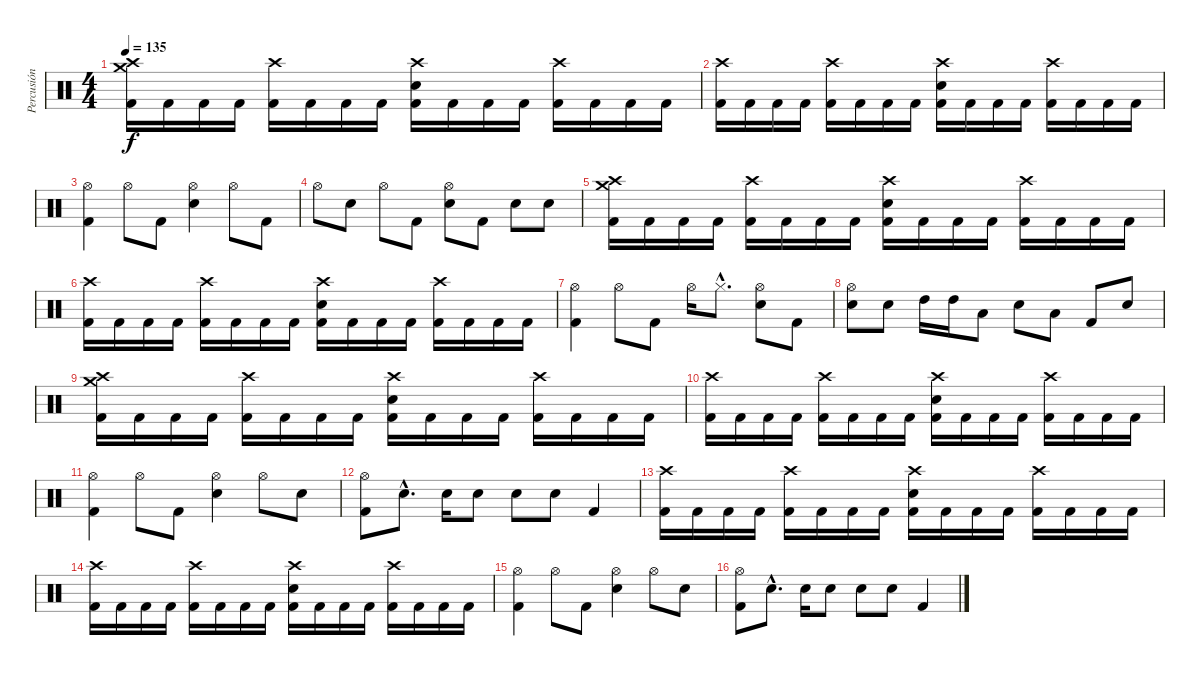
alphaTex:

\track ("Percusión" "Percusión") {instrument percussion}
\staff {score}
\articulation defaults
\ts (4 4)
\tempo 135
\clef neutral
\ks c
("Crash medium (hit)" "Crash high (hit)" "Kick (hit) 2").16{dy f} "Kick (hit) 2".16 "Kick (hit) 2".16 "Kick (hit) 2".16 ("Crash high (hit)" "Kick (hit) 2").16 "Kick (hit) 2".16 "Kick (hit) 2".16 "Kick (hit) 2".16 ("Crash high (hit)" "Electric Snare (hit)" "Kick (hit) 2").16 "Kick (hit) 2".16 "Kick (hit) 2".16 "Kick (hit) 2".16 ("Crash high (hit)" "Kick (hit) 2").16 "Kick (hit) 2".16 "Kick (hit) 2".16 "Kick (hit) 2".16 |
("Crash high (hit)" "Kick (hit) 2").16 "Kick (hit) 2".16 "Kick (hit) 2".16 "Kick (hit) 2".16 ("Crash high (hit)" "Kick (hit) 2").16 "Kick (hit) 2".16 "Kick (hit) 2".16 "Kick (hit) 2".16 ("Crash high (hit)" "Electric Snare (hit)" "Kick (hit) 2").16 "Kick (hit) 2".16 "Kick (hit) 2".16 "Kick (hit) 2".16 ("Crash high (hit)" "Kick (hit) 2").16 "Kick (hit) 2".16 "Kick (hit) 2".16 "Kick (hit) 2".16 |
("Hi-Hat (open)" "Kick (hit) 2").4 "Hi-Hat (open)".8 "Kick (hit) 2".8 ("Hi-Hat (open)" "Electric Snare (hit)").4 "Hi-Hat (open)".8 "Kick (hit) 2".8 |
"Hi-Hat (open)".8 "Electric Snare (hit)".8 "Hi-Hat (open)".8 "Kick (hit) 2".8 ("Hi-Hat (open)" "Electric Snare (hit)").8 "Kick (hit) 2".8 "Electric Snare (hit)".8 "Electric Snare (hit)".8 |
("Crash medium (hit)" "Crash high (hit)" "Kick (hit) 2").16 "Kick (hit) 2".16 "Kick (hit) 2".16 "Kick (hit) 2".16 ("Crash high (hit)" "Kick (hit) 2").16 "Kick (hit) 2".16 "Kick (hit) 2".16 "Kick (hit) 2".16 ("Crash high (hit)" "Electric Snare (hit)" "Kick (hit) 2").16 "Kick (hit) 2".16 "Kick (hit) 2".16 "Kick (hit) 2".16 ("Crash high (hit)" "Kick (hit) 2").16 "Kick (hit) 2".16 "Kick (hit) 2".16 "Kick (hit) 2".16 |
("Crash high (hit)" "Kick (hit) 2").16 "Kick (hit) 2".16 "Kick (hit) 2".16 "Kick (hit) 2".16 ("Crash high (hit)" "Kick (hit) 2").16 "Kick (hit) 2".16 "Kick (hit) 2".16 "Kick (hit) 2".16 ("Crash high (hit)" "Electric Snare (hit)" "Kick (hit) 2").16 "Kick (hit) 2".16 "Kick (hit) 2".16 "Kick (hit) 2".16 ("Crash high (hit)" "Kick (hit) 2").16 "Kick (hit) 2".16 "Kick (hit) 2".16 "Kick (hit) 2".16 |
("Hi-Hat (open)" "Kick (hit) 2").4 "Hi-Hat (open)".8 "Kick (hit) 2".8 "Hi-Hat (open)".16 "Hi-Hat (closed)"{hac}.8{d} ("Hi-Hat (open)" "Electric Snare (hit)").8 "Kick (hit) 2".8 |
("Hi-Hat (open)" "Electric Snare (hit)").8 "Electric Snare (hit)".8 "High Tom (hit)".16 "High Tom (hit)".16 "Low Tom (hit)".8 "Electric Snare (hit)".8 "Low Tom (hit)".8 "Kick (hit) 2".8 "Electric Snare (hit)".8 |
("Crash medium (hit)" "Crash high (hit)" "Kick (hit) 2").16 "Kick (hit) 2".16 "Kick (hit) 2".16 "Kick (hit) 2".16 ("Crash high (hit)" "Kick (hit) 2").16 "Kick (hit) 2".16 "Kick (hit) 2".16 "Kick (hit) 2".16 ("Crash high (hit)" "Electric Snare (hit)" "Kick (hit) 2").16 "Kick (hit) 2".16 "Kick (hit) 2".16 "Kick (hit) 2".16 ("Crash high (hit)" "Kick (hit) 2").16 "Kick (hit) 2".16 "Kick (hit) 2".16 "Kick (hit) 2".16 |
("Crash high (hit)" "Kick (hit) 2").16 "Kick (hit) 2".16 "Kick (hit) 2".16 "Kick (hit) 2".16 ("Crash high (hit)" "Kick (hit) 2").16 "Kick (hit) 2".16 "Kick (hit) 2".16 "Kick (hit) 2".16 ("Crash high (hit)" "Electric Snare (hit)" "Kick (hit) 2").16 "Kick (hit) 2".16 "Kick (hit) 2".16 "Kick (hit) 2".16 ("Crash high (hit)" "Kick (hit) 2").16 "Kick (hit) 2".16 "Kick (hit) 2".16 "Kick (hit) 2".16 |
("Hi-Hat (open)" "Kick (hit) 2").4 "Hi-Hat (open)".8 "Kick (hit) 2".8 ("Hi-Hat (open)" "Electric Snare (hit)").4 "Hi-Hat (open)".8 "Electric Snare (hit)".8 |
("Hi-Hat (open)" "Kick (hit) 2").8 "Electric Snare (hit)"{hac}.8{d} "Electric Snare (hit)".16 "Electric Snare (hit)".8 "Electric Snare (hit)".8 "Electric Snare (hit)".8 "Kick (hit) 2".4 |
("Crash high (hit)" "Kick (hit) 2").16 "Kick (hit) 2".16 "Kick (hit) 2".16 "Kick (hit) 2".16 ("Crash high (hit)" "Kick (hit) 2").16 "Kick (hit) 2".16 "Kick (hit) 2".16 "Kick (hit) 2".16 ("Crash high (hit)" "Electric Snare (hit)" "Kick (hit) 2").16 "Kick (hit) 2".16 "Kick (hit) 2".16 "Kick (hit) 2".16 ("Crash high (hit)" "Kick (hit) 2").16 "Kick (hit) 2".16 "Kick (hit) 2".16 "Kick (hit) 2".16 |
("Crash high (hit)" "Kick (hit) 2").16 "Kick (hit) 2".16 "Kick (hit) 2".16 "Kick (hit) 2".16 ("Crash high (hit)" "Kick (hit) 2").16 "Kick (hit) 2".16 "Kick (hit) 2".16 "Kick (hit) 2".16 ("Crash high (hit)" "Electric Snare (hit)" "Kick (hit) 2").16 "Kick (hit) 2".16 "Kick (hit) 2".16 "Kick (hit) 2".16 ("Crash high (hit)" "Kick (hit) 2").16 "Kick (hit) 2".16 "Kick (hit) 2".16 "Kick (hit) 2".16 |
("Hi-Hat (open)" "Kick (hit) 2").4 "Hi-Hat (open)".8 "Kick (hit) 2".8 ("Hi-Hat (open)" "Electric Snare (hit)").4 "Hi-Hat (open)".8 "Electric Snare (hit)".8 |
("Hi-Hat (open)" "Kick (hit) 2").8 "Electric Snare (hit)"{hac}.8{d} "Electric Snare (hit)".16 "Electric Snare (hit)".8 "Electric Snare (hit)".8 "Electric Snare (hit)".8 "Kick (hit) 2".4
